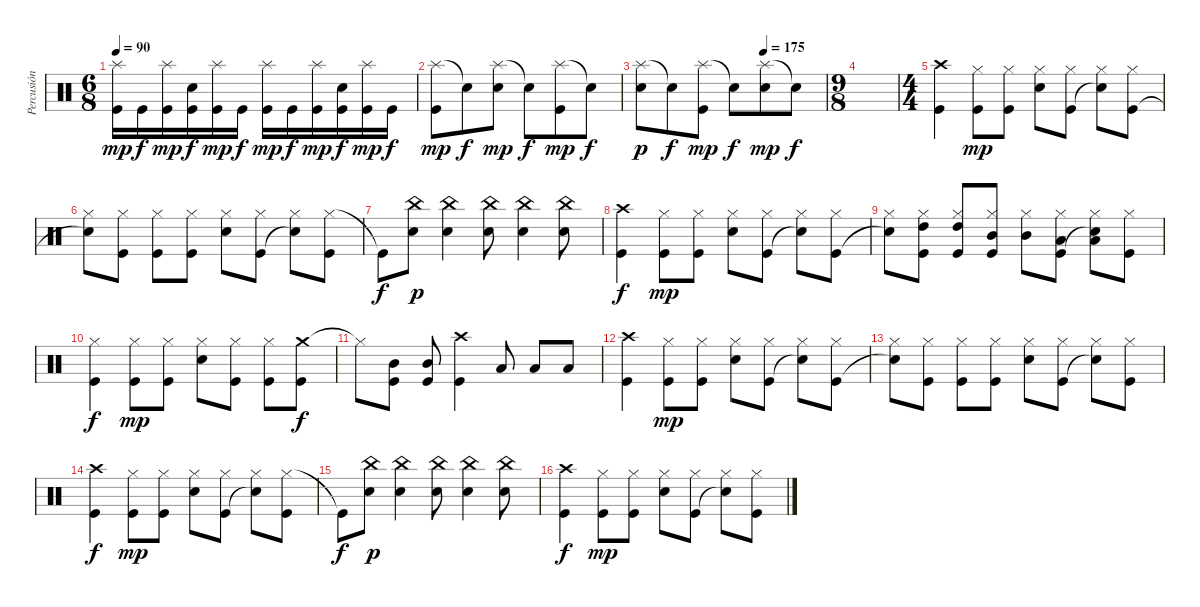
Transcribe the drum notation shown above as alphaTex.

\track ("Percusión" "Percusión") {instrument percussion}
\staff {score}
\articulation defaults
\ts (6 8)
\tempo 90
\clef neutral
\ks c
("Splash (hit)" "Kick (hit)").16{dy mp} "Kick (hit)".16{dy f} ("Splash (hit)" "Kick (hit)").16{dy mp} ("Snare (hit) 2" "Kick (hit)").16{dy f} ("Splash (hit)" "Kick (hit)").16{dy mp} "Kick (hit)".16{dy f} ("Splash (hit)" "Kick (hit)").16{dy mp} "Kick (hit)".16{dy f} ("Splash (hit)" "Kick (hit)").16{dy mp} ("Snare (hit) 2" "Kick (hit)").16{dy f} ("Splash (hit)" "Kick (hit)").16{dy mp} "Kick (hit)".16{dy f} |
("Splash (hit)" "Kick (hit)").8{dy mp} "Snare (hit)"{t}.8{dy f} ("Splash (hit)" "Snare (hit) 2").8{dy mp} "Snare (hit)"{t}.8{dy f} ("Splash (hit)" "Kick (hit)").8{dy mp} "Snare (hit)"{t}.8{dy f} |
\tempo (175 0.6666666666666666)
("Splash (hit)" "Snare (hit) 2").8{dy p} "Snare (hit)"{t}.8{dy f} ("Splash (hit)" "Kick (hit)").8{dy mp} "Snare (hit)"{t}.8{dy f} ("Splash (hit)" "Snare (hit) 2").8{dy mp} "Snare (hit)"{t}.8{dy f} |
\ts (9 8)
|
\ts (4 4)
("Crash high (hit)" "Kick (hit)").4 ("Hi-Hat (closed)" "Kick (hit)").8{dy mp} ("Hi-Hat (closed)" "Kick (hit)").8 ("Hi-Hat (closed)" "Snare (hit) 2").8 ("Hi-Hat (closed)" "Kick (hit)").8 ("Hi-Hat (closed)" "Snare (hit)"{t}).8 ("Hi-Hat (closed)" "Kick (hit)").8 |
("Hi-Hat (closed)" "Snare (hit)"{t}).8 ("Hi-Hat (closed)" "Kick (hit)").8 ("Hi-Hat (closed)" "Kick (hit)").8 ("Hi-Hat (closed)" "Kick (hit)").8 ("Hi-Hat (closed)" "Snare (hit) 2").8 ("Hi-Hat (closed)" "Kick (hit)").8 ("Hi-Hat (closed)" "Snare (hit)"{t}).8 ("Hi-Hat (closed)" "Kick (hit)").8 |
"Kick (hit)"{t}.8{dy f} ("China (hit)" "Snare (hit) 2").8{dy p} ("China (hit)" "Snare (hit) 2").4 ("China (hit)" "Snare (hit) 2").8 ("China (hit)" "Snare (hit) 2").4 ("China (hit)" "Snare (hit) 2").8 |
("Crash high (hit)" "Kick (hit)").4{dy f} ("Hi-Hat (closed)" "Kick (hit)").8{dy mp} ("Hi-Hat (closed)" "Kick (hit)").8 ("Hi-Hat (closed)" "Snare (hit) 2").8 ("Hi-Hat (closed)" "Kick (hit)").8 ("Hi-Hat (closed)" "Snare (hit)"{t}).8 ("Hi-Hat (closed)" "Kick (hit)").8 |
("Hi-Hat (closed)" "Snare (hit)"{t}).8 ("Hi-Hat (closed)" "High Tom (hit)" "Kick (hit)").8 ("Hi-Hat (closed)" "High Tom (hit)" "Kick (hit)").8 ("Hi-Hat (closed)" "Mid Tom (hit)" "Kick (hit)").8 ("Hi-Hat (closed)" "Mid Tom (hit)").8 ("Hi-Hat (closed)" "Low Tom (hit)" "Kick (hit)").8 ("Hi-Hat (closed)" "Low Tom (hit)" "Snare (hit)"{t}).8 ("Hi-Hat (closed)" "Kick (hit)").8 |
("Hi-Hat (closed)" "Kick (hit)").4{dy f} ("Hi-Hat (closed)" "Kick (hit)").8{dy mp} ("Hi-Hat (closed)" "Kick (hit)").8 ("Hi-Hat (closed)" "Snare (hit) 2").8 ("Hi-Hat (closed)" "Kick (hit)").8 ("Hi-Hat (closed)" "Kick (hit)").8 ("Crash medium (hit)" "Kick (hit)").8{dy f} |
"Hi-Hat (closed)"{t}.8 ("Mid Tom (hit)" "Kick (hit)").8 ("Mid Tom (hit)" "Kick (hit)").8 ("Crash high (hit)" "Kick (hit)").4 "Low Tom (hit)".8 "Low Tom (hit)".8 "Low Tom (hit)".8 |
("Crash high (hit)" "Kick (hit)").4 ("Hi-Hat (closed)" "Kick (hit)").8{dy mp} ("Hi-Hat (closed)" "Kick (hit)").8 ("Hi-Hat (closed)" "Snare (hit) 2").8 ("Hi-Hat (closed)" "Kick (hit)").8 ("Hi-Hat (closed)" "Snare (hit)"{t}).8 ("Hi-Hat (closed)" "Kick (hit)").8 |
("Hi-Hat (closed)" "Snare (hit)"{t}).8 ("Hi-Hat (closed)" "Kick (hit)").8 ("Hi-Hat (closed)" "Kick (hit)").8 ("Hi-Hat (closed)" "Kick (hit)").8 ("Hi-Hat (closed)" "Snare (hit) 2").8 ("Hi-Hat (closed)" "Kick (hit)").8 ("Hi-Hat (closed)" "Snare (hit)"{t}).8 ("Hi-Hat (closed)" "Kick (hit)").8 |
("Crash high (hit)" "Kick (hit)").4{dy f} ("Hi-Hat (closed)" "Kick (hit)").8{dy mp} ("Hi-Hat (closed)" "Kick (hit)").8 ("Hi-Hat (closed)" "Snare (hit) 2").8 ("Hi-Hat (closed)" "Kick (hit)").8 ("Hi-Hat (closed)" "Snare (hit)"{t}).8 ("Hi-Hat (closed)" "Kick (hit)").8 |
"Kick (hit)"{t}.8{dy f} ("China (hit)" "Snare (hit) 2").8{dy p} ("China (hit)" "Snare (hit) 2").4 ("China (hit)" "Snare (hit) 2").8 ("China (hit)" "Snare (hit) 2").4 ("China (hit)" "Snare (hit) 2").8 |
("Crash high (hit)" "Kick (hit)").4{dy f} ("Hi-Hat (closed)" "Kick (hit)").8{dy mp} ("Hi-Hat (closed)" "Kick (hit)").8 ("Hi-Hat (closed)" "Snare (hit) 2").8 ("Hi-Hat (closed)" "Kick (hit)").8 ("Hi-Hat (closed)" "Snare (hit)"{t}).8 ("Hi-Hat (closed)" "Kick (hit)").8
